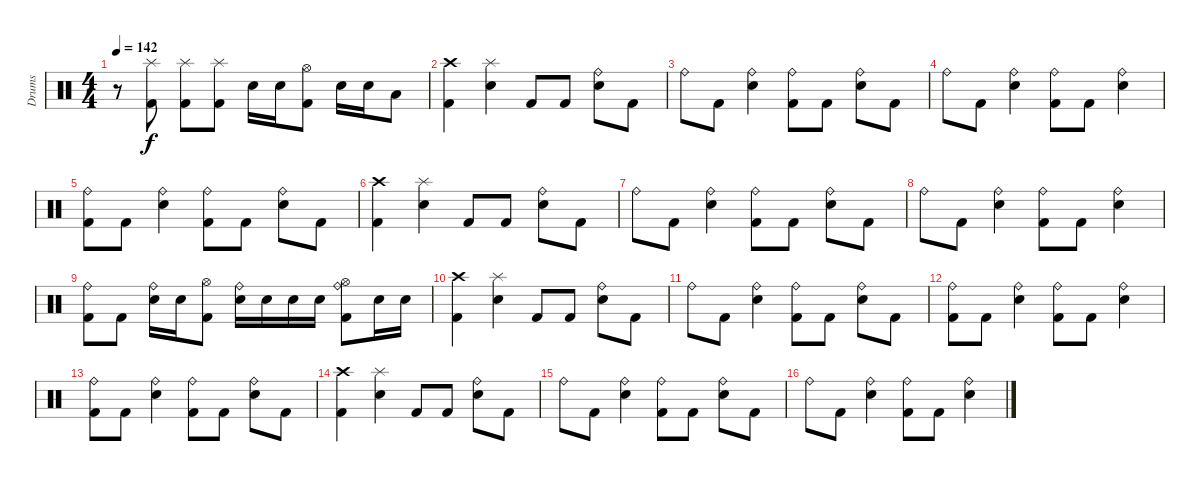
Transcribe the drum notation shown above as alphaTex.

\track ("Drums" "Drums") {instrument percussion}
\staff {score}
\articulation defaults
\ts (4 4)
\tempo 142
\clef neutral
\ks c
r.8{dy f} ("Kick (hit) 2" "Splash (hit)").8 ("Kick (hit) 2" "Splash (hit)").8 ("Kick (hit) 2" "Splash (hit)").8 "Snare (hit) 2".16 "Snare (hit) 2".16 ("Kick (hit) 2" "Hi-Hat (open)").8 "Snare (hit) 2".16 "Snare (hit) 2".16 "Low Tom (hit)".8 |
("Kick (hit) 2" "Crash high (hit)").4 ("Snare (hit) 2" "Splash (hit)").4 "Kick (hit) 2".8 "Kick (hit) 2".8 ("Snare (hit) 2" "Ride (bell)").8 "Kick (hit) 2".8 |
"Ride (bell)".8 "Kick (hit) 2".8 ("Snare (hit) 2" "Ride (bell)").4 ("Kick (hit) 2" "Ride (bell)").8 "Kick (hit) 2".8 ("Snare (hit) 2" "Ride (bell)").8 "Kick (hit) 2".8 |
"Ride (bell)".8 "Kick (hit) 2".8 ("Snare (hit) 2" "Ride (bell)").4 ("Kick (hit) 2" "Ride (bell)").8 "Kick (hit) 2".8 ("Snare (hit) 2" "Ride (bell)").4 |
("Kick (hit) 2" "Ride (bell)").8 "Kick (hit) 2".8 ("Snare (hit) 2" "Ride (bell)").4 ("Kick (hit) 2" "Ride (bell)").8 "Kick (hit) 2".8 ("Snare (hit) 2" "Ride (bell)").8 "Kick (hit) 2".8 |
("Kick (hit) 2" "Crash high (hit)").4 ("Snare (hit) 2" "Splash (hit)").4 "Kick (hit) 2".8 "Kick (hit) 2".8 ("Snare (hit) 2" "Ride (bell)").8 "Kick (hit) 2".8 |
"Ride (bell)".8 "Kick (hit) 2".8 ("Snare (hit) 2" "Ride (bell)").4 ("Kick (hit) 2" "Ride (bell)").8 "Kick (hit) 2".8 ("Snare (hit) 2" "Ride (bell)").8 "Kick (hit) 2".8 |
"Ride (bell)".8 "Kick (hit) 2".8 ("Snare (hit) 2" "Ride (bell)").4 ("Kick (hit) 2" "Ride (bell)").8 "Kick (hit) 2".8 ("Snare (hit) 2" "Ride (bell)").4 |
("Kick (hit) 2" "Ride (bell)").8 "Kick (hit) 2".8 ("Snare (hit) 2" "Ride (bell)").16 "Snare (hit) 2".16 ("Kick (hit) 2" "Hi-Hat (open)").8 ("Snare (hit) 2" "Ride (bell)").16 "Snare (hit) 2".16 "Snare (hit) 2".16 "Snare (hit) 2".16 ("Kick (hit) 2" "Hi-Hat (open)" "Ride (bell)").8 "Snare (hit) 2".16 "Snare (hit) 2".16 |
("Kick (hit) 2" "Crash high (hit)").4 ("Snare (hit) 2" "Splash (hit)").4 "Kick (hit) 2".8 "Kick (hit) 2".8 ("Snare (hit) 2" "Ride (bell)").8 "Kick (hit) 2".8 |
"Ride (bell)".8 "Kick (hit) 2".8 ("Snare (hit) 2" "Ride (bell)").4 ("Kick (hit) 2" "Ride (bell)").8 "Kick (hit) 2".8 ("Snare (hit) 2" "Ride (bell)").8 "Kick (hit) 2".8 |
("Kick (hit) 2" "Ride (bell)").8 "Kick (hit) 2".8 ("Snare (hit) 2" "Ride (bell)").4 ("Kick (hit) 2" "Ride (bell)").8 "Kick (hit) 2".8 ("Snare (hit) 2" "Ride (bell)").4 |
("Kick (hit) 2" "Ride (bell)").8 "Kick (hit) 2".8 ("Snare (hit) 2" "Ride (bell)").4 ("Kick (hit) 2" "Ride (bell)").8 "Kick (hit) 2".8 ("Snare (hit) 2" "Ride (bell)").8 "Kick (hit) 2".8 |
("Kick (hit) 2" "Crash high (hit)").4 ("Snare (hit) 2" "Splash (hit)").4 "Kick (hit) 2".8 "Kick (hit) 2".8 ("Snare (hit) 2" "Ride (bell)").8 "Kick (hit) 2".8 |
"Ride (bell)".8 "Kick (hit) 2".8 ("Snare (hit) 2" "Ride (bell)").4 ("Kick (hit) 2" "Ride (bell)").8 "Kick (hit) 2".8 ("Snare (hit) 2" "Ride (bell)").8 "Kick (hit) 2".8 |
"Ride (bell)".8 "Kick (hit) 2".8 ("Snare (hit) 2" "Ride (bell)").4 ("Kick (hit) 2" "Ride (bell)").8 "Kick (hit) 2".8 ("Snare (hit) 2" "Ride (bell)").4
